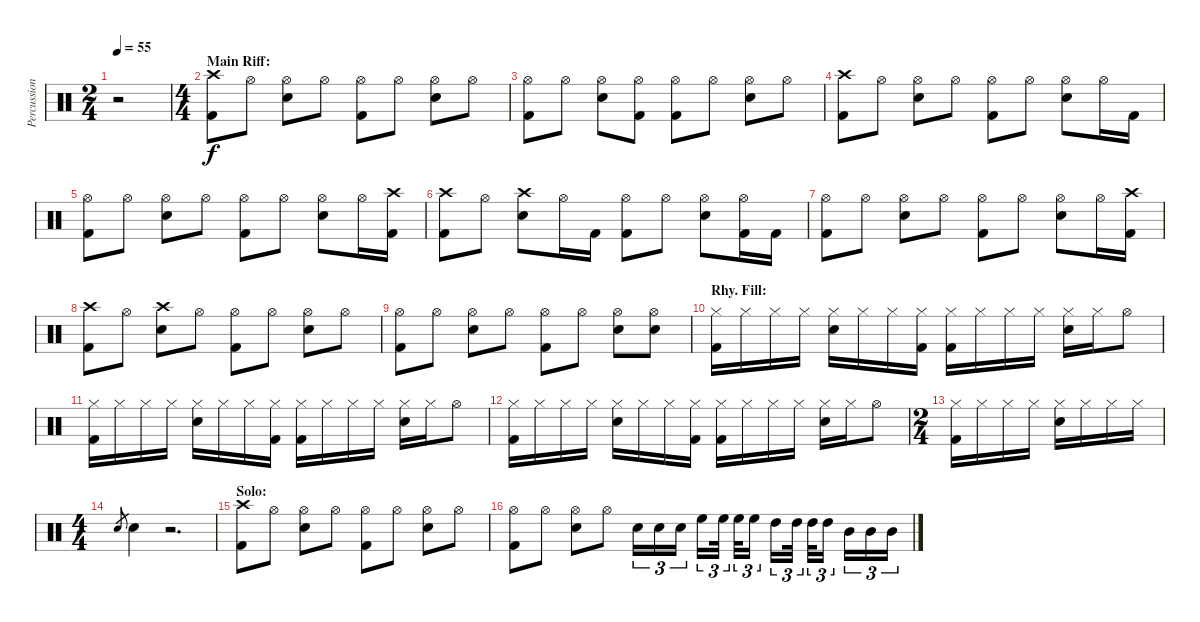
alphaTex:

\track ("Percussion" "Percussion") {instrument percussion}
\staff {score}
\articulation defaults
\ts (2 4)
\tempo 55
\clef neutral
\ks c
r.2{dy f} |
\ts (4 4)
\section ("" "Main Riff:")
("Crash high (hit)" "Kick (hit) 2").8 "Hi-Hat (open)".8 ("Hi-Hat (open)" "Snare (hit) 2").8 "Hi-Hat (open)".8 ("Hi-Hat (open)" "Kick (hit) 2").8 "Hi-Hat (open)".8 ("Hi-Hat (open)" "Snare (hit) 2").8 "Hi-Hat (open)".8 |
("Hi-Hat (open)" "Kick (hit) 2").8 "Hi-Hat (open)".8 ("Hi-Hat (open)" "Snare (hit) 2").8 ("Hi-Hat (open)" "Kick (hit) 2").8 ("Hi-Hat (open)" "Kick (hit) 2").8 "Hi-Hat (open)".8 ("Hi-Hat (open)" "Snare (hit) 2").8 "Hi-Hat (open)".8 |
("Crash high (hit)" "Kick (hit) 2").8 "Hi-Hat (open)".8 ("Hi-Hat (open)" "Snare (hit) 2").8 "Hi-Hat (open)".8 ("Hi-Hat (open)" "Kick (hit) 2").8 "Hi-Hat (open)".8 ("Hi-Hat (open)" "Snare (hit) 2").8 "Hi-Hat (open)".16 "Kick (hit) 2".16 |
("Hi-Hat (open)" "Kick (hit) 2").8 "Hi-Hat (open)".8 ("Hi-Hat (open)" "Snare (hit) 2").8 "Hi-Hat (open)".8 ("Hi-Hat (open)" "Kick (hit) 2").8 "Hi-Hat (open)".8 ("Hi-Hat (open)" "Snare (hit) 2").8 "Hi-Hat (open)".16 ("Crash high (hit)" "Kick (hit) 2").16 |
("Crash high (hit)" "Kick (hit) 2").8 "Hi-Hat (open)".8 ("Crash high (hit)" "Snare (hit) 2").8 "Hi-Hat (open)".16 "Kick (hit) 2".16 ("Hi-Hat (open)" "Kick (hit) 2").8 "Hi-Hat (open)".8 ("Hi-Hat (open)" "Snare (hit) 2").8 ("Hi-Hat (open)" "Kick (hit) 2").16 "Kick (hit) 2".16 |
("Hi-Hat (open)" "Kick (hit) 2").8 "Hi-Hat (open)".8 ("Hi-Hat (open)" "Snare (hit) 2").8 "Hi-Hat (open)".8 ("Hi-Hat (open)" "Kick (hit) 2").8 "Hi-Hat (open)".8 ("Hi-Hat (open)" "Snare (hit) 2").8 "Hi-Hat (open)".16 ("Crash high (hit)" "Kick (hit) 2").16 |
("Crash high (hit)" "Kick (hit) 2").8 "Hi-Hat (open)".8 ("Crash high (hit)" "Snare (hit) 2").8 "Hi-Hat (open)".8 ("Hi-Hat (open)" "Kick (hit) 2").8 "Hi-Hat (open)".8 ("Hi-Hat (open)" "Snare (hit) 2").8 "Hi-Hat (open)".8 |
("Hi-Hat (open)" "Kick (hit) 2").8 "Hi-Hat (open)".8 ("Hi-Hat (open)" "Snare (hit) 2").8 "Hi-Hat (open)".8 ("Hi-Hat (open)" "Kick (hit) 2").8 "Hi-Hat (open)".8 ("Hi-Hat (open)" "Snare (hit) 2").8 ("Hi-Hat (open)" "Snare (hit) 2").8 |
\section ("" "Rhy. Fill:")
("Hi-Hat (closed)" "Kick (hit) 2").16 "Hi-Hat (closed)".16 "Hi-Hat (closed)".16 "Hi-Hat (closed)".16 ("Hi-Hat (closed)" "Snare (hit) 2").16 "Hi-Hat (closed)".16 "Hi-Hat (closed)".16 ("Hi-Hat (closed)" "Kick (hit) 2").16 ("Hi-Hat (closed)" "Kick (hit) 2").16 "Hi-Hat (closed)".16 "Hi-Hat (closed)".16 "Hi-Hat (closed)".16 ("Hi-Hat (closed)" "Snare (hit) 2").16 "Hi-Hat (closed)".16 "Hi-Hat (open)".8 |
("Hi-Hat (closed)" "Kick (hit) 2").16 "Hi-Hat (closed)".16 "Hi-Hat (closed)".16 "Hi-Hat (closed)".16 ("Hi-Hat (closed)" "Snare (hit) 2").16 "Hi-Hat (closed)".16 "Hi-Hat (closed)".16 ("Hi-Hat (closed)" "Kick (hit) 2").16 ("Hi-Hat (closed)" "Kick (hit) 2").16 "Hi-Hat (closed)".16 "Hi-Hat (closed)".16 "Hi-Hat (closed)".16 ("Hi-Hat (closed)" "Snare (hit) 2").16 "Hi-Hat (closed)".16 "Hi-Hat (open)".8 |
("Hi-Hat (closed)" "Kick (hit) 2").16 "Hi-Hat (closed)".16 "Hi-Hat (closed)".16 "Hi-Hat (closed)".16 ("Hi-Hat (closed)" "Snare (hit) 2").16 "Hi-Hat (closed)".16 "Hi-Hat (closed)".16 ("Hi-Hat (closed)" "Kick (hit) 2").16 ("Hi-Hat (closed)" "Kick (hit) 2").16 "Hi-Hat (closed)".16 "Hi-Hat (closed)".16 "Hi-Hat (closed)".16 ("Hi-Hat (closed)" "Snare (hit) 2").16 "Hi-Hat (closed)".16 "Hi-Hat (open)".8 |
\ts (2 4)
("Hi-Hat (closed)" "Kick (hit) 2").16 "Hi-Hat (closed)".16 "Hi-Hat (closed)".16 "Hi-Hat (closed)".16 ("Hi-Hat (closed)" "Snare (hit) 2").16 "Hi-Hat (closed)".16 "Hi-Hat (closed)".16 "Hi-Hat (closed)".16 |
\ts (4 4)
"Snare (hit) 2".8{gr} "Snare (hit) 2".4 r.2{d} |
\section ("" "Solo:")
("Crash high (hit)" "Kick (hit) 2").8 "Hi-Hat (open)".8 ("Hi-Hat (open)" "Snare (hit) 2").8 "Hi-Hat (open)".8 ("Hi-Hat (open)" "Kick (hit) 2").8 "Hi-Hat (open)".8 ("Hi-Hat (open)" "Snare (hit) 2").8 "Hi-Hat (open)".8 |
("Hi-Hat (open)" "Kick (hit) 2").8 "Hi-Hat (open)".8 ("Hi-Hat (open)" "Snare (hit) 2").8 "Hi-Hat (open)".8 "Snare (hit) 2".16{tu (3 2)} "Snare (hit) 2".16{tu (3 2)} "Snare (hit) 2".16{tu (3 2)} "High Floor Tom (hit)".16{tu (3 2)} "High Floor Tom (hit)".32{tu (3 2)} "High Floor Tom (hit)".32{tu (3 2)} "High Floor Tom (hit)".16{tu (3 2)} "High Tom (hit)".16{tu (3 2)} "High Tom (hit)".32{tu (3 2)} "High Tom (hit)".32{tu (3 2)} "High Tom (hit)".16{tu (3 2)} "Mid Tom (hit)".16{tu (3 2)} "Mid Tom (hit)".16{tu (3 2)} "Mid Tom (hit)".16{tu (3 2)}
